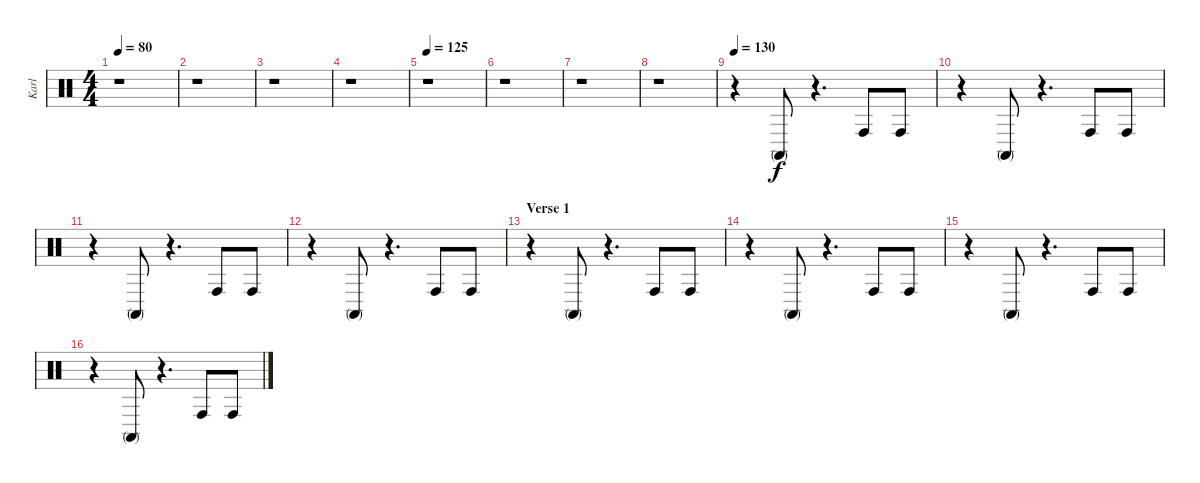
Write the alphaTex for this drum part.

\track ("Karl" "Karl") {instrument percussion}
\staff {score}
\articulation defaults
\ts (4 4)
\tempo 80
\tempo 60
\tempo 80
\clef neutral
\ks c
r.1{dy f} |
r.1 |
r.1 |
r.1 |
\tempo 125
r.1 |
r.1 |
r.1 |
r.1 |
\tempo 130
r.4 "Conga high (mute)".8 r.4{d} "Conga high (hit)".8 "Conga high (hit)".8 |
r.4 "Conga high (mute)".8 r.4{d} "Conga high (hit)".8 "Conga high (hit)".8 |
r.4 "Conga high (mute)".8 r.4{d} "Conga high (hit)".8 "Conga high (hit)".8 |
r.4 "Conga high (mute)".8 r.4{d} "Conga high (hit)".8 "Conga high (hit)".8 |
\section ("" "Verse 1")
r.4 "Conga high (mute)".8 r.4{d} "Conga high (hit)".8 "Conga high (hit)".8 |
r.4 "Conga high (mute)".8 r.4{d} "Conga high (hit)".8 "Conga high (hit)".8 |
r.4 "Conga high (mute)".8 r.4{d} "Conga high (hit)".8 "Conga high (hit)".8 |
r.4 "Conga high (mute)".8 r.4{d} "Conga high (hit)".8 "Conga high (hit)".8
